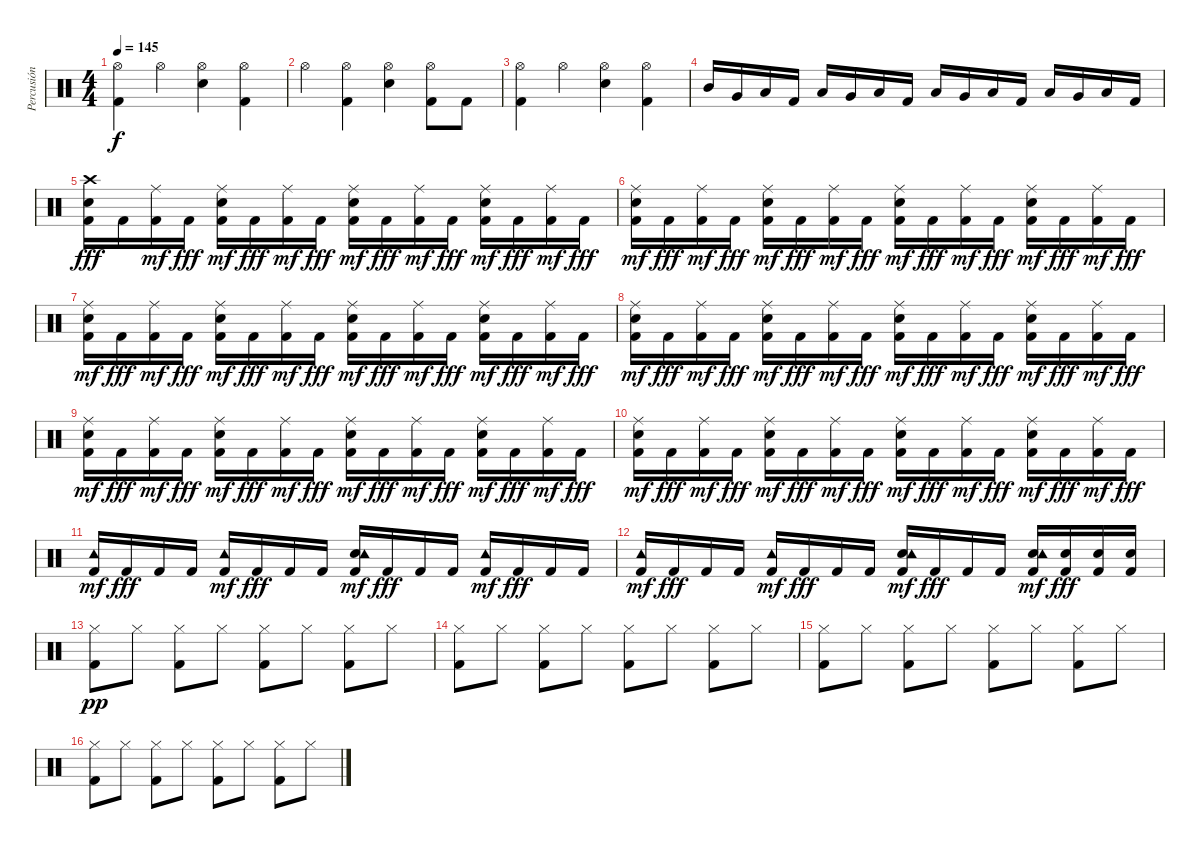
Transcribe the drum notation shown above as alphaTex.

\track ("Percusión" "Percusión") {instrument percussion}
\staff {score}
\articulation defaults
\ts (4 4)
\tempo 145
\clef neutral
\ks c
("Kick (hit) 2" "Hi-Hat (open)").4{dy f} "Hi-Hat (open)".4 ("Snare (hit) 2" "Hi-Hat (open)").4 ("Kick (hit) 2" "Hi-Hat (open)").4 |
"Hi-Hat (open)".4 ("Kick (hit) 2" "Hi-Hat (open)").4 ("Snare (hit) 2" "Hi-Hat (open)").4 ("Kick (hit) 2" "Hi-Hat (open)").8 "Kick (hit) 2".8 |
("Kick (hit) 2" "Hi-Hat (open)").4 "Hi-Hat (open)".4 ("Snare (hit) 2" "Hi-Hat (open)").4 ("Kick (hit) 2" "Hi-Hat (open)").4 |
"Mid Tom (hit)".16 "Very Low Tom (hit)".16 "Low Floor Tom (hit)".16 "Kick (hit) 2".16 "Low Tom (hit)".16 "Very Low Tom (hit)".16 "Low Floor Tom (hit)".16 "Kick (hit) 2".16 "Low Tom (hit)".16 "Very Low Tom (hit)".16 "Low Floor Tom (hit)".16 "Kick (hit) 2".16 "Low Tom (hit)".16 "Very Low Tom (hit)".16 "Low Floor Tom (hit)".16 "Kick (hit) 2".16 |
("Kick (hit) 2" "Snare (hit) 2" "Crash high (hit)").16{dy fff} "Kick (hit) 2".16 ("Kick (hit) 2" "Ride (middle)").16{dy mf} "Kick (hit) 2".16{dy fff} ("Kick (hit) 2" "Snare (hit) 2" "Ride (middle)").16{dy mf} "Kick (hit) 2".16{dy fff} ("Kick (hit) 2" "Ride (middle)").16{dy mf} "Kick (hit) 2".16{dy fff} ("Kick (hit) 2" "Snare (hit) 2" "Ride (middle)").16{dy mf} "Kick (hit) 2".16{dy fff} ("Kick (hit) 2" "Ride (middle)").16{dy mf} "Kick (hit) 2".16{dy fff} ("Kick (hit) 2" "Snare (hit) 2" "Ride (middle)").16{dy mf} "Kick (hit) 2".16{dy fff} ("Kick (hit) 2" "Ride (middle)").16{dy mf} "Kick (hit) 2".16{dy fff} |
("Kick (hit) 2" "Snare (hit) 2" "Ride (middle)").16{dy mf} "Kick (hit) 2".16{dy fff} ("Kick (hit) 2" "Ride (middle)").16{dy mf} "Kick (hit) 2".16{dy fff} ("Kick (hit) 2" "Snare (hit) 2" "Ride (middle)").16{dy mf} "Kick (hit) 2".16{dy fff} ("Kick (hit) 2" "Ride (middle)").16{dy mf} "Kick (hit) 2".16{dy fff} ("Kick (hit) 2" "Snare (hit) 2" "Ride (middle)").16{dy mf} "Kick (hit) 2".16{dy fff} ("Kick (hit) 2" "Ride (middle)").16{dy mf} "Kick (hit) 2".16{dy fff} ("Kick (hit) 2" "Snare (hit) 2" "Ride (middle)").16{dy mf} "Kick (hit) 2".16{dy fff} ("Kick (hit) 2" "Ride (middle)").16{dy mf} "Kick (hit) 2".16{dy fff} |
("Kick (hit) 2" "Snare (hit) 2" "Ride (middle)").16{dy mf} "Kick (hit) 2".16{dy fff} ("Kick (hit) 2" "Ride (middle)").16{dy mf} "Kick (hit) 2".16{dy fff} ("Kick (hit) 2" "Snare (hit) 2" "Ride (middle)").16{dy mf} "Kick (hit) 2".16{dy fff} ("Kick (hit) 2" "Ride (middle)").16{dy mf} "Kick (hit) 2".16{dy fff} ("Kick (hit) 2" "Snare (hit) 2" "Ride (middle)").16{dy mf} "Kick (hit) 2".16{dy fff} ("Kick (hit) 2" "Ride (middle)").16{dy mf} "Kick (hit) 2".16{dy fff} ("Kick (hit) 2" "Snare (hit) 2" "Ride (middle)").16{dy mf} "Kick (hit) 2".16{dy fff} ("Kick (hit) 2" "Ride (middle)").16{dy mf} "Kick (hit) 2".16{dy fff} |
("Kick (hit) 2" "Snare (hit) 2" "Ride (middle)").16{dy mf} "Kick (hit) 2".16{dy fff} ("Kick (hit) 2" "Ride (middle)").16{dy mf} "Kick (hit) 2".16{dy fff} ("Kick (hit) 2" "Snare (hit) 2" "Ride (middle)").16{dy mf} "Kick (hit) 2".16{dy fff} ("Kick (hit) 2" "Ride (middle)").16{dy mf} "Kick (hit) 2".16{dy fff} ("Kick (hit) 2" "Snare (hit) 2" "Ride (middle)").16{dy mf} "Kick (hit) 2".16{dy fff} ("Kick (hit) 2" "Ride (middle)").16{dy mf} "Kick (hit) 2".16{dy fff} ("Kick (hit) 2" "Snare (hit) 2" "Ride (middle)").16{dy mf} "Kick (hit) 2".16{dy fff} ("Kick (hit) 2" "Ride (middle)").16{dy mf} "Kick (hit) 2".16{dy fff} |
("Kick (hit) 2" "Snare (hit) 2" "Ride (middle)").16{dy mf} "Kick (hit) 2".16{dy fff} ("Kick (hit) 2" "Ride (middle)").16{dy mf} "Kick (hit) 2".16{dy fff} ("Kick (hit) 2" "Snare (hit) 2" "Ride (middle)").16{dy mf} "Kick (hit) 2".16{dy fff} ("Kick (hit) 2" "Ride (middle)").16{dy mf} "Kick (hit) 2".16{dy fff} ("Kick (hit) 2" "Snare (hit) 2" "Ride (middle)").16{dy mf} "Kick (hit) 2".16{dy fff} ("Kick (hit) 2" "Ride (middle)").16{dy mf} "Kick (hit) 2".16{dy fff} ("Kick (hit) 2" "Snare (hit) 2" "Ride (middle)").16{dy mf} "Kick (hit) 2".16{dy fff} ("Kick (hit) 2" "Ride (middle)").16{dy mf} "Kick (hit) 2".16{dy fff} |
("Kick (hit) 2" "Snare (hit) 2" "Ride (middle)").16{dy mf} "Kick (hit) 2".16{dy fff} ("Kick (hit) 2" "Ride (middle)").16{dy mf} "Kick (hit) 2".16{dy fff} ("Kick (hit) 2" "Snare (hit) 2" "Ride (middle)").16{dy mf} "Kick (hit) 2".16{dy fff} ("Kick (hit) 2" "Ride (middle)").16{dy mf} "Kick (hit) 2".16{dy fff} ("Kick (hit) 2" "Snare (hit) 2" "Ride (middle)").16{dy mf} "Kick (hit) 2".16{dy fff} ("Kick (hit) 2" "Ride (middle)").16{dy mf} "Kick (hit) 2".16{dy fff} ("Kick (hit) 2" "Snare (hit) 2" "Ride (middle)").16{dy mf} "Kick (hit) 2".16{dy fff} ("Kick (hit) 2" "Ride (middle)").16{dy mf} "Kick (hit) 2".16{dy fff} |
("Kick (hit) 2" "Tambourine (hit)").16{dy mf} "Kick (hit) 2".16{dy fff} "Kick (hit) 2".16 "Kick (hit) 2".16 ("Kick (hit) 2" "Tambourine (hit)").16{dy mf} "Kick (hit) 2".16{dy fff} "Kick (hit) 2".16 "Kick (hit) 2".16 ("Kick (hit) 2" "Snare (hit) 2" "Tambourine (hit)").16{dy mf} "Kick (hit) 2".16{dy fff} "Kick (hit) 2".16 "Kick (hit) 2".16 ("Kick (hit) 2" "Tambourine (hit)").16{dy mf} "Kick (hit) 2".16{dy fff} "Kick (hit) 2".16 "Kick (hit) 2".16 |
("Kick (hit) 2" "Tambourine (hit)").16{dy mf} "Kick (hit) 2".16{dy fff} "Kick (hit) 2".16 "Kick (hit) 2".16 ("Kick (hit) 2" "Tambourine (hit)").16{dy mf} "Kick (hit) 2".16{dy fff} "Kick (hit) 2".16 "Kick (hit) 2".16 ("Kick (hit) 2" "Snare (hit) 2" "Tambourine (hit)").16{dy mf} "Kick (hit) 2".16{dy fff} "Kick (hit) 2".16 "Kick (hit) 2".16 ("Kick (hit) 2" "Snare (hit) 2" "Tambourine (hit)").16{dy mf} ("Kick (hit) 2" "Snare (hit) 2").16{dy fff} ("Kick (hit) 2" "Snare (hit) 2").16 ("Kick (hit) 2" "Snare (hit) 2").16 |
("Hi-Hat (closed)" "Kick (hit) 2").8{dy pp} "Hi-Hat (closed)".8 ("Hi-Hat (closed)" "Kick (hit) 2").8 "Hi-Hat (closed)".8 ("Hi-Hat (closed)" "Kick (hit) 2").8 "Hi-Hat (closed)".8 ("Hi-Hat (closed)" "Kick (hit) 2").8 "Hi-Hat (closed)".8 |
("Hi-Hat (closed)" "Kick (hit) 2").8 "Hi-Hat (closed)".8 ("Hi-Hat (closed)" "Kick (hit) 2").8 "Hi-Hat (closed)".8 ("Hi-Hat (closed)" "Kick (hit) 2").8 "Hi-Hat (closed)".8 ("Hi-Hat (closed)" "Kick (hit) 2").8 "Hi-Hat (closed)".8 |
("Hi-Hat (closed)" "Kick (hit) 2").8 "Hi-Hat (closed)".8 ("Hi-Hat (closed)" "Kick (hit) 2").8 "Hi-Hat (closed)".8 ("Hi-Hat (closed)" "Kick (hit) 2").8 "Hi-Hat (closed)".8 ("Hi-Hat (closed)" "Kick (hit) 2").8 "Hi-Hat (closed)".8 |
("Hi-Hat (closed)" "Kick (hit) 2").8 "Hi-Hat (closed)".8 ("Hi-Hat (closed)" "Kick (hit) 2").8 "Hi-Hat (closed)".8 ("Hi-Hat (closed)" "Kick (hit) 2").8 "Hi-Hat (closed)".8 ("Hi-Hat (closed)" "Kick (hit) 2").8 "Hi-Hat (closed)".8
